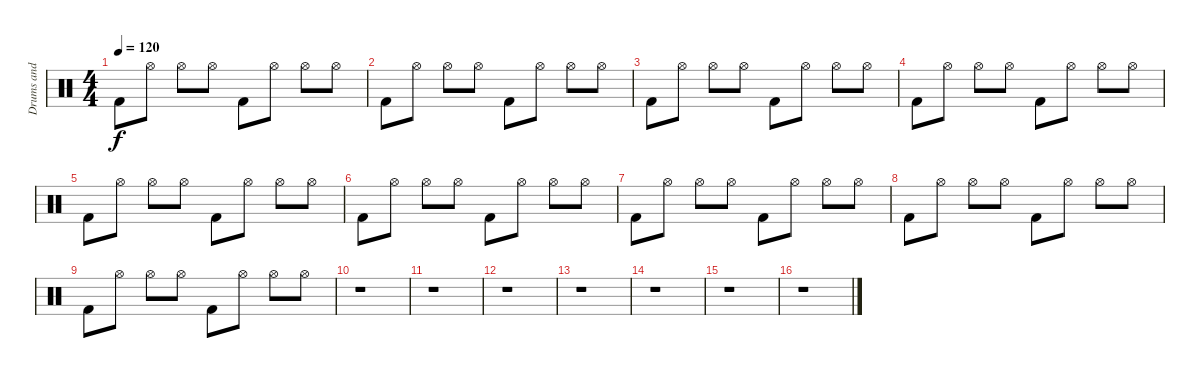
\track ("Drums and Percussion" "Drums and ") {instrument percussion}
\staff {score}
\articulation defaults
\ts (4 4)
\tempo 120
\clef neutral
\ks c "Kick (hit) 2".8{dy f} "Hi-Hat (open)".8 "Hi-Hat (open)".8 "Hi-Hat (open)".8 "Kick (hit) 2".8 "Hi-Hat (open)".8 "Hi-Hat (open)".8 "Hi-Hat (open)".8
|
"Kick (hit) 2".8 "Hi-Hat (open)".8 "Hi-Hat (open)".8 "Hi-Hat (open)".8 "Kick (hit) 2".8 "Hi-Hat (open)".8 "Hi-Hat (open)".8 "Hi-Hat (open)".8 |
"Kick (hit) 2".8 "Hi-Hat (open)".8 "Hi-Hat (open)".8 "Hi-Hat (open)".8 "Kick (hit) 2".8 "Hi-Hat (open)".8 "Hi-Hat (open)".8 "Hi-Hat (open)".8 |
"Kick (hit) 2".8 "Hi-Hat (open)".8 "Hi-Hat (open)".8 "Hi-Hat (open)".8 "Kick (hit) 2".8 "Hi-Hat (open)".8 "Hi-Hat (open)".8 "Hi-Hat (open)".8 |
"Kick (hit) 2".8 "Hi-Hat (open)".8 "Hi-Hat (open)".8 "Hi-Hat (open)".8 "Kick (hit) 2".8 "Hi-Hat (open)".8 "Hi-Hat (open)".8 "Hi-Hat (open)".8 |
"Kick (hit) 2".8 "Hi-Hat (open)".8 "Hi-Hat (open)".8 "Hi-Hat (open)".8 "Kick (hit) 2".8 "Hi-Hat (open)".8 "Hi-Hat (open)".8 "Hi-Hat (open)".8 |
"Kick (hit) 2".8 "Hi-Hat (open)".8 "Hi-Hat (open)".8 "Hi-Hat (open)".8 "Kick (hit) 2".8 "Hi-Hat (open)".8 "Hi-Hat (open)".8 "Hi-Hat (open)".8 |
"Kick (hit) 2".8 "Hi-Hat (open)".8 "Hi-Hat (open)".8 "Hi-Hat (open)".8 "Kick (hit) 2".8 "Hi-Hat (open)".8 "Hi-Hat (open)".8 "Hi-Hat (open)".8 |
"Kick (hit) 2".8 "Hi-Hat (open)".8 "Hi-Hat (open)".8 "Hi-Hat (open)".8 "Kick (hit) 2".8 "Hi-Hat (open)".8 "Hi-Hat (open)".8 "Hi-Hat (open)".8 |
r.1 |
r.1 |
r.1 |
r.1 |
r.1 |
r.1 |
r.1
